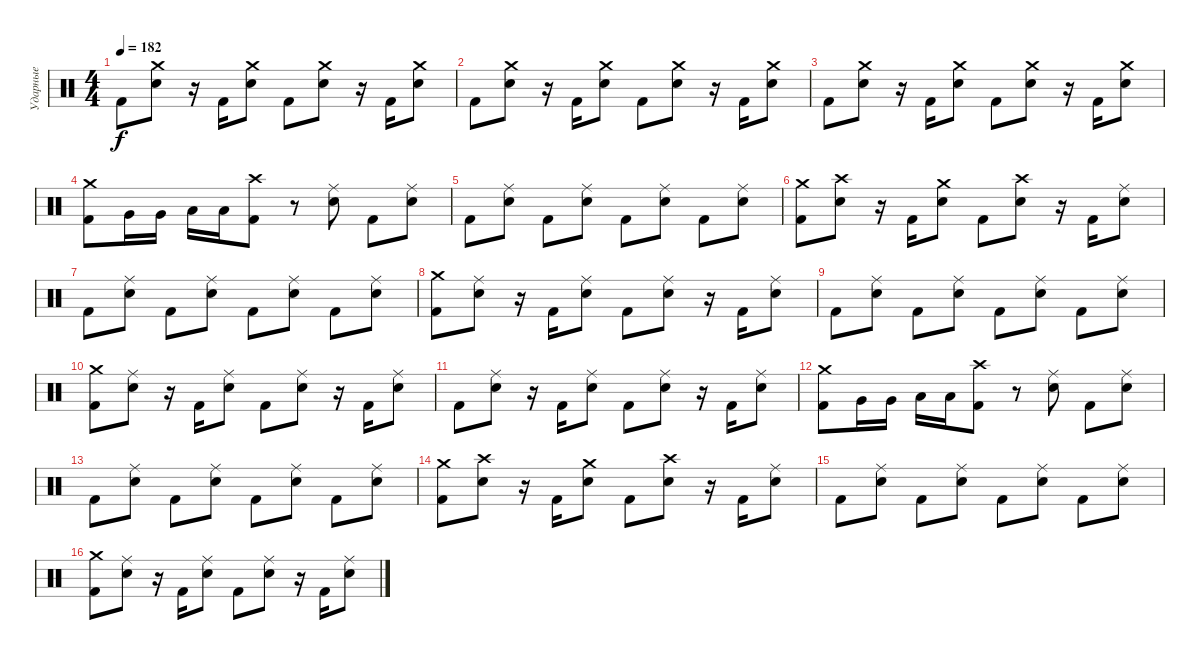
\track ("Ударные" "Ударные") {instrument percussion}
\staff {score}
\articulation defaults
\ts (4 4)
\tempo 182
\clef neutral
\ks c "Kick (hit) 2".8{dy f}
("Crash medium (hit)" "Electric Snare (hit)").8 r.16 "Kick (hit) 2".16 ("Crash medium (hit)" "Electric Snare (hit)").8 "Kick (hit) 2".8 ("Crash medium (hit)" "Electric Snare (hit)").8 r.16 "Kick (hit) 2".16 ("Crash medium (hit)" "Electric Snare (hit)").8 |
"Kick (hit) 2".8 ("Crash medium (hit)" "Electric Snare (hit)").8 r.16 "Kick (hit) 2".16 ("Crash medium (hit)" "Electric Snare (hit)").8 "Kick (hit) 2".8 ("Crash medium (hit)" "Electric Snare (hit)").8 r.16 "Kick (hit) 2".16 ("Crash medium (hit)" "Electric Snare (hit)").8 |
"Kick (hit) 2".8 ("Crash medium (hit)" "Electric Snare (hit)").8 r.16 "Kick (hit) 2".16 ("Crash medium (hit)" "Electric Snare (hit)").8 "Kick (hit) 2".8 ("Crash medium (hit)" "Electric Snare (hit)").8 r.16 "Kick (hit) 2".16 ("Crash medium (hit)" "Electric Snare (hit)").8 |
("Crash medium (hit)" "Kick (hit) 2").8 "Very Low Tom (hit)".16 "Very Low Tom (hit)".16 "Low Tom (hit)".16 "Low Floor Tom (hit)".16 ("Crash high (hit)" "Kick (hit) 2").8 r.8 ("Ride (middle)" "Electric Snare (hit)").8 "Kick (hit) 2".8 ("Ride (middle)" "Electric Snare (hit)").8 |
"Kick (hit) 2".8 ("Ride (middle)" "Electric Snare (hit)").8 "Kick (hit) 2".8 ("Ride (middle)" "Electric Snare (hit)").8 "Kick (hit) 2".8 ("Ride (middle)" "Electric Snare (hit)").8 "Kick (hit) 2".8 ("Ride (middle)" "Electric Snare (hit)").8 |
("Crash medium (hit)" "Kick (hit) 2").8 ("Crash high (hit)" "Electric Snare (hit)").8 r.16 "Kick (hit) 2".16 ("Crash medium (hit)" "Electric Snare (hit)").8 "Kick (hit) 2".8 ("Crash high (hit)" "Electric Snare (hit)").8 r.16 "Kick (hit) 2".16 ("Ride (middle)" "Electric Snare (hit)").8 |
"Kick (hit) 2".8 ("Ride (middle)" "Electric Snare (hit)").8 "Kick (hit) 2".8 ("Ride (middle)" "Electric Snare (hit)").8 "Kick (hit) 2".8 ("Ride (middle)" "Electric Snare (hit)").8 "Kick (hit) 2".8 ("Ride (middle)" "Electric Snare (hit)").8 |
("Crash medium (hit)" "Kick (hit) 2").8 ("Ride (middle)" "Electric Snare (hit)").8 r.16 "Kick (hit) 2".16 ("Ride (middle)" "Electric Snare (hit)").8 "Kick (hit) 2".8 ("Ride (middle)" "Electric Snare (hit)").8 r.16 "Kick (hit) 2".16 ("Ride (middle)" "Electric Snare (hit)").8 |
"Kick (hit) 2".8 ("Ride (middle)" "Electric Snare (hit)").8 "Kick (hit) 2".8 ("Ride (middle)" "Electric Snare (hit)").8 "Kick (hit) 2".8 ("Ride (middle)" "Electric Snare (hit)").8 "Kick (hit) 2".8 ("Ride (middle)" "Electric Snare (hit)").8 |
("Crash medium (hit)" "Kick (hit) 2").8 ("Ride (middle)" "Electric Snare (hit)").8 r.16 "Kick (hit) 2".16 ("Ride (middle)" "Electric Snare (hit)").8 "Kick (hit) 2".8 ("Ride (middle)" "Electric Snare (hit)").8 r.16 "Kick (hit) 2".16 ("Ride (middle)" "Electric Snare (hit)").8 |
"Kick (hit) 2".8 ("Ride (middle)" "Electric Snare (hit)").8 r.16 "Kick (hit) 2".16 ("Ride (middle)" "Electric Snare (hit)").8 "Kick (hit) 2".8 ("Ride (middle)" "Electric Snare (hit)").8 r.16 "Kick (hit) 2".16 ("Ride (middle)" "Electric Snare (hit)").8 |
("Crash medium (hit)" "Kick (hit) 2").8 "Very Low Tom (hit)".16 "Very Low Tom (hit)".16 "Low Tom (hit)".16 "Low Floor Tom (hit)".16 ("Crash high (hit)" "Kick (hit) 2").8 r.8 ("Ride (middle)" "Electric Snare (hit)").8 "Kick (hit) 2".8 ("Ride (middle)" "Electric Snare (hit)").8 |
"Kick (hit) 2".8 ("Ride (middle)" "Electric Snare (hit)").8 "Kick (hit) 2".8 ("Ride (middle)" "Electric Snare (hit)").8 "Kick (hit) 2".8 ("Ride (middle)" "Electric Snare (hit)").8 "Kick (hit) 2".8 ("Ride (middle)" "Electric Snare (hit)").8 |
("Crash medium (hit)" "Kick (hit) 2").8 ("Crash high (hit)" "Electric Snare (hit)").8 r.16 "Kick (hit) 2".16 ("Crash medium (hit)" "Electric Snare (hit)").8 "Kick (hit) 2".8 ("Crash high (hit)" "Electric Snare (hit)").8 r.16 "Kick (hit) 2".16 ("Ride (middle)" "Electric Snare (hit)").8 |
"Kick (hit) 2".8 ("Ride (middle)" "Electric Snare (hit)").8 "Kick (hit) 2".8 ("Ride (middle)" "Electric Snare (hit)").8 "Kick (hit) 2".8 ("Ride (middle)" "Electric Snare (hit)").8 "Kick (hit) 2".8 ("Ride (middle)" "Electric Snare (hit)").8 |
("Crash medium (hit)" "Kick (hit) 2").8 ("Ride (middle)" "Electric Snare (hit)").8 r.16 "Kick (hit) 2".16 ("Ride (middle)" "Electric Snare (hit)").8 "Kick (hit) 2".8 ("Ride (middle)" "Electric Snare (hit)").8 r.16 "Kick (hit) 2".16 ("Ride (middle)" "Electric Snare (hit)").8
